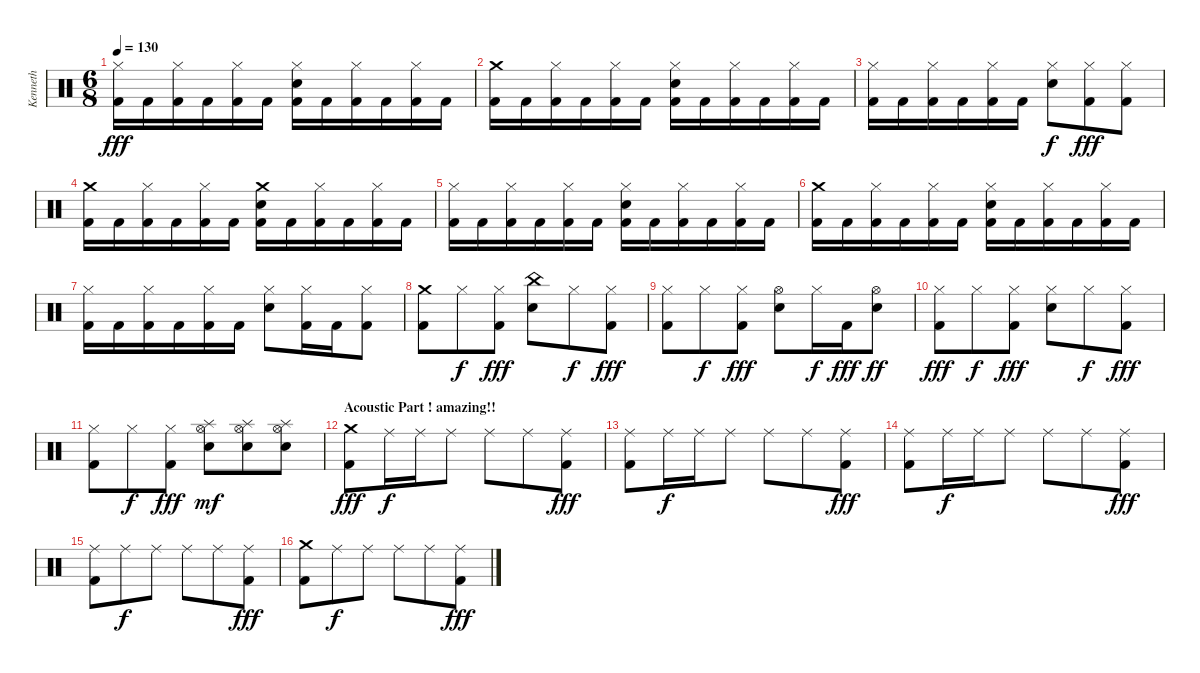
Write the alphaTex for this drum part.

\track ("Kenneth" "Kenneth") {instrument percussion}
\staff {score}
\articulation defaults
\ts (6 8)
\tempo 130
\clef neutral
\ks c
("Hi-Hat (closed)" "Kick (hit) 2").16{dy fff} "Kick (hit) 2".16 ("Hi-Hat (closed)" "Kick (hit) 2").16 "Kick (hit) 2".16 ("Hi-Hat (closed)" "Kick (hit) 2").16 "Kick (hit) 2".16 ("Hi-Hat (closed)" "Electric Snare (hit)" "Kick (hit) 2").16 "Kick (hit) 2".16 ("Hi-Hat (closed)" "Kick (hit) 2").16 "Kick (hit) 2".16 ("Hi-Hat (closed)" "Kick (hit) 2").16 "Kick (hit) 2".16 |
("Crash medium (hit)" "Kick (hit) 2").16 "Kick (hit) 2".16 ("Hi-Hat (closed)" "Kick (hit) 2").16 "Kick (hit) 2".16 ("Hi-Hat (closed)" "Kick (hit) 2").16 "Kick (hit) 2".16 ("Hi-Hat (closed)" "Electric Snare (hit)" "Kick (hit) 2").16 "Kick (hit) 2".16 ("Hi-Hat (closed)" "Kick (hit) 2").16 "Kick (hit) 2".16 ("Hi-Hat (closed)" "Kick (hit) 2").16 "Kick (hit) 2".16 |
("Hi-Hat (closed)" "Kick (hit) 2").16 "Kick (hit) 2".16 ("Hi-Hat (closed)" "Kick (hit) 2").16 "Kick (hit) 2".16 ("Hi-Hat (closed)" "Kick (hit) 2").16 "Kick (hit) 2".16 ("Hi-Hat (closed)" "Electric Snare (hit)").8{dy f} ("Hi-Hat (closed)" "Kick (hit) 2").8{dy fff} ("Hi-Hat (closed)" "Kick (hit) 2").8 |
("Crash medium (hit)" "Kick (hit) 2").16 "Kick (hit) 2".16 ("Hi-Hat (closed)" "Kick (hit) 2").16 "Kick (hit) 2".16 ("Hi-Hat (closed)" "Kick (hit) 2").16 "Kick (hit) 2".16 ("Crash medium (hit)" "Electric Snare (hit)" "Kick (hit) 2").16 "Kick (hit) 2".16 ("Hi-Hat (closed)" "Kick (hit) 2").16 "Kick (hit) 2".16 ("Hi-Hat (closed)" "Kick (hit) 2").16 "Kick (hit) 2".16 |
("Hi-Hat (closed)" "Kick (hit) 2").16 "Kick (hit) 2".16 ("Hi-Hat (closed)" "Kick (hit) 2").16 "Kick (hit) 2".16 ("Hi-Hat (closed)" "Kick (hit) 2").16 "Kick (hit) 2".16 ("Hi-Hat (closed)" "Electric Snare (hit)" "Kick (hit) 2").16 "Kick (hit) 2".16 ("Hi-Hat (closed)" "Kick (hit) 2").16 "Kick (hit) 2".16 ("Hi-Hat (closed)" "Kick (hit) 2").16 "Kick (hit) 2".16 |
("Crash medium (hit)" "Kick (hit) 2").16 "Kick (hit) 2".16 ("Hi-Hat (closed)" "Kick (hit) 2").16 "Kick (hit) 2".16 ("Hi-Hat (closed)" "Kick (hit) 2").16 "Kick (hit) 2".16 ("Hi-Hat (closed)" "Electric Snare (hit)" "Kick (hit) 2").16 "Kick (hit) 2".16 ("Hi-Hat (closed)" "Kick (hit) 2").16 "Kick (hit) 2".16 ("Hi-Hat (closed)" "Kick (hit) 2").16 "Kick (hit) 2".16 |
("Hi-Hat (closed)" "Kick (hit) 2").16 "Kick (hit) 2".16 ("Hi-Hat (closed)" "Kick (hit) 2").16 "Kick (hit) 2".16 ("Hi-Hat (closed)" "Kick (hit) 2").16 "Kick (hit) 2".16 ("Hi-Hat (closed)" "Electric Snare (hit)").8 ("Hi-Hat (closed)" "Kick (hit) 2").16 "Kick (hit) 2".16 ("Hi-Hat (closed)" "Kick (hit) 2").8 |
("Crash medium (hit)" "Kick (hit) 2").8 "Hi-Hat (closed)".8{dy f} ("Hi-Hat (closed)" "Kick (hit) 2").8{dy fff} ("China (hit)" "Electric Snare (hit)").8 "Hi-Hat (closed)".8{dy f} ("Hi-Hat (closed)" "Kick (hit) 2").8{dy fff} |
("Hi-Hat (closed)" "Kick (hit) 2").8 "Hi-Hat (closed)".8{dy f} ("Hi-Hat (closed)" "Kick (hit) 2").8{dy fff} ("Hi-Hat (open)" "Electric Snare (hit)").8 "Hi-Hat (closed)".16{dy f} "Kick (hit) 2".16{dy fff} ("Hi-Hat (open)" "Electric Snare (hit)").8{dy ff} |
("Hi-Hat (closed)" "Kick (hit) 2").8{dy fff} "Hi-Hat (closed)".8{dy f} ("Hi-Hat (closed)" "Kick (hit) 2").8{dy fff} ("Hi-Hat (closed)" "Electric Snare (hit)").8 "Hi-Hat (closed)".8{dy f} ("Hi-Hat (closed)" "Kick (hit) 2").8{dy fff} |
("Hi-Hat (closed)" "Kick (hit) 2").8 "Hi-Hat (closed)".8{dy f} ("Hi-Hat (closed)" "Kick (hit) 2").8{dy fff} ("Splash (hit)" "Hi-Hat (open)" "Electric Snare (hit)").8{dy mf} ("Splash (hit)" "Hi-Hat (open)" "Electric Snare (hit)").8 ("Splash (hit)" "Hi-Hat (open)" "Electric Snare (hit)").8 |
\section ("" "Acoustic Part ! amazing!!")
("Crash medium (hit)" "Kick (hit) 2").8{dy fff} "Ride (middle)".16{dy f} "Ride (middle)".16 "Ride (middle)".8 "Ride (middle)".8 "Ride (middle)".8 ("Ride (middle)" "Kick (hit) 2").8{dy fff} |
("Ride (middle)" "Kick (hit) 2").8 "Ride (middle)".16{dy f} "Ride (middle)".16 "Ride (middle)".8 "Ride (middle)".8 "Ride (middle)".8 ("Ride (middle)" "Kick (hit) 2").8{dy fff} |
("Ride (middle)" "Kick (hit) 2").8 "Ride (middle)".16{dy f} "Ride (middle)".16 "Ride (middle)".8 "Ride (middle)".8 "Ride (middle)".8 ("Ride (middle)" "Kick (hit) 2").8{dy fff} |
("Ride (middle)" "Kick (hit) 2").8 "Ride (middle)".8{dy f} "Ride (middle)".8 "Ride (middle)".8 "Ride (middle)".8 ("Ride (middle)" "Kick (hit) 2").8{dy fff} |
("Crash medium (hit)" "Kick (hit) 2").8 "Ride (middle)".8{dy f} "Ride (middle)".8 "Ride (middle)".8 "Ride (middle)".8 ("Ride (middle)" "Kick (hit) 2").8{dy fff}
